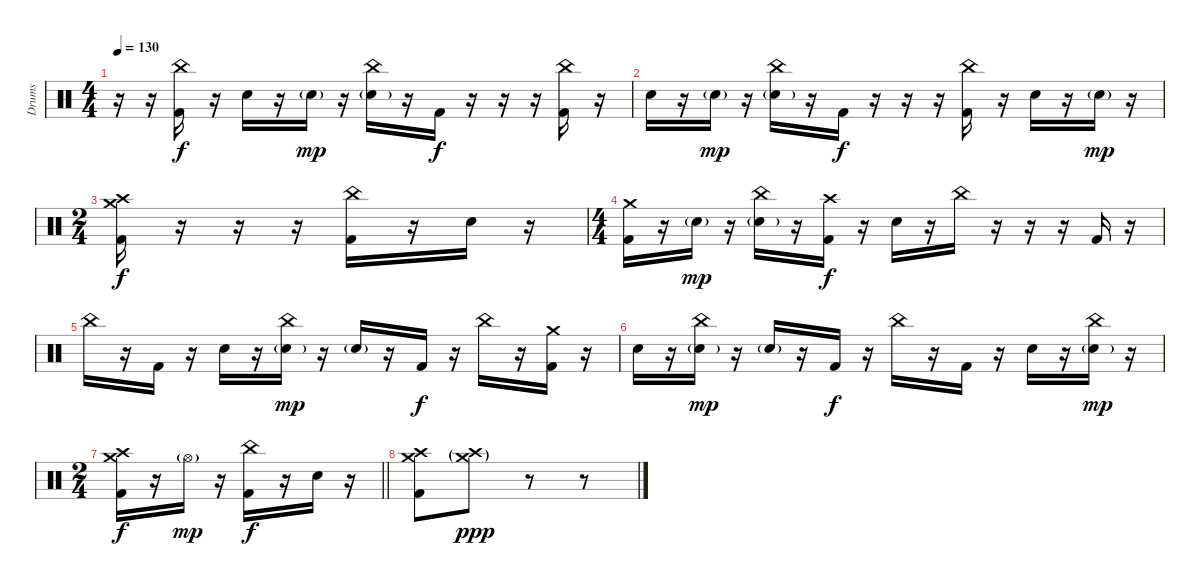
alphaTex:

\track ("Drums" "Drums") {instrument percussion}
\staff {score}
\articulation defaults
\ts (4 4)
\tempo 130
\clef neutral
\ks c
r.16{dy f} r.16 ("China (hit)" "Kick (hit) 2").16 r.16 "Electric Snare (hit)".16 r.16 "Electric Snare (hit)"{g}.16{dy mp} r.16 ("China (hit)" "Electric Snare (hit)"{g}).16 r.16 "Kick (hit) 2".16{dy f} r.16 r.16 r.16 ("China (hit)" "Kick (hit) 2").16 r.16 |
"Electric Snare (hit)".16 r.16 "Electric Snare (hit)"{g}.16{dy mp} r.16 ("China (hit)" "Electric Snare (hit)"{g}).16 r.16 "Kick (hit) 2".16{dy f} r.16 r.16 r.16 ("China (hit)" "Kick (hit) 2").16 r.16 "Electric Snare (hit)".16 r.16 "Electric Snare (hit)"{g}.16{dy mp} r.16 |
\ts (2 4)
("Crash high (hit)" "Crash medium (hit)" "Kick (hit) 2").16{dy f} r.16 r.16 r.16 ("China (hit)" "Kick (hit) 2").16 r.16 "Electric Snare (hit)".16 r.16 |
\ts (4 4)
("Crash medium (hit)" "Kick (hit) 2").16 r.16 "Electric Snare (hit)"{g}.16{dy mp} r.16 ("China (hit)" "Electric Snare (hit)"{g}).16 r.16 ("Crash high (hit)" "Kick (hit) 2").16{dy f} r.16 "Electric Snare (hit)".16 r.16 "China (hit)".16 r.16 r.16 r.16 "Kick (hit) 2".16 r.16 |
"China (hit)".16 r.16 "Kick (hit) 2".16 r.16 "Electric Snare (hit)".16 r.16 ("China (hit)" "Electric Snare (hit)"{g}).16{dy mp} r.16 "Electric Snare (hit)"{g}.16 r.16 "Kick (hit) 2".16{dy f} r.16 "China (hit)".16 r.16 ("Crash medium (hit)" "Kick (hit) 2").16 r.16 |
"Electric Snare (hit)".16 r.16 ("China (hit)" "Electric Snare (hit)"{g}).16{dy mp} r.16 "Electric Snare (hit)"{g}.16 r.16 "Kick (hit) 2".16{dy f} r.16 "China (hit)".16 r.16 "Kick (hit) 2".16 r.16 "Electric Snare (hit)".16 r.16 ("China (hit)" "Electric Snare (hit)"{g}).16{dy mp} r.16 |
\ts (2 4)
\barLineRight lightlight
("Crash high (hit)" "Crash medium (hit)" "Kick (hit) 2").16{dy f} r.16 "Hi-Hat (open)"{g}.16{dy mp} r.16 ("China (hit)" "Kick (hit) 2").16{dy f} r.16 "Electric Snare (hit)".16 r.16 |
("Crash medium (hit)" "Crash high (hit)" "Kick (hit) 2").8 ("Crash medium (hit)"{g} "Crash high (hit)"{g}).8{dy ppp} r.8 r.8
